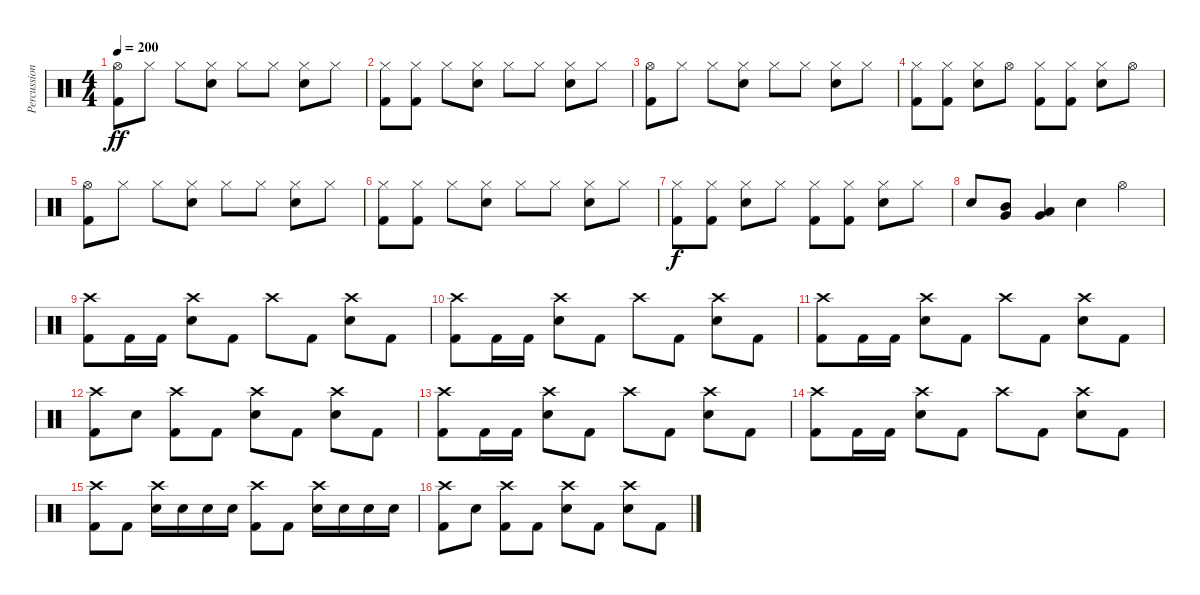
\track ("Percussion" "Percussion") {instrument percussion}
\staff {score}
\articulation defaults
\ts (4 4)
\tempo 200
\clef neutral
\ks c
("Hi-Hat (open)" "Kick (hit) 2").8{dy ff} "Hi-Hat (closed)".8 "Hi-Hat (closed)".8 ("Hi-Hat (closed)" "Snare (hit) 2").8 "Hi-Hat (closed)".8 "Hi-Hat (closed)".8 ("Hi-Hat (closed)" "Snare (hit) 2").8 "Hi-Hat (closed)".8 |
("Hi-Hat (closed)" "Kick (hit) 2").8 ("Hi-Hat (closed)" "Kick (hit) 2").8 "Hi-Hat (closed)".8 ("Hi-Hat (closed)" "Snare (hit) 2").8 "Hi-Hat (closed)".8 "Hi-Hat (closed)".8 ("Hi-Hat (closed)" "Snare (hit) 2").8 "Hi-Hat (closed)".8 |
("Hi-Hat (open)" "Kick (hit) 2").8 "Hi-Hat (closed)".8 "Hi-Hat (closed)".8 ("Hi-Hat (closed)" "Snare (hit) 2").8 "Hi-Hat (closed)".8 "Hi-Hat (closed)".8 ("Hi-Hat (closed)" "Snare (hit) 2").8 "Hi-Hat (closed)".8 |
("Hi-Hat (closed)" "Kick (hit) 2").8 ("Hi-Hat (closed)" "Kick (hit) 2").8 ("Hi-Hat (closed)" "Snare (hit) 2").8 "Hi-Hat (open)".8 ("Hi-Hat (closed)" "Kick (hit) 2").8 ("Hi-Hat (closed)" "Kick (hit) 2").8 ("Hi-Hat (closed)" "Snare (hit) 2").8 "Hi-Hat (open)".8 |
("Hi-Hat (open)" "Kick (hit) 2").8 "Hi-Hat (closed)".8 "Hi-Hat (closed)".8 ("Hi-Hat (closed)" "Snare (hit) 2").8 "Hi-Hat (closed)".8 "Hi-Hat (closed)".8 ("Hi-Hat (closed)" "Snare (hit) 2").8 "Hi-Hat (closed)".8 |
("Hi-Hat (closed)" "Kick (hit) 2").8 ("Hi-Hat (closed)" "Kick (hit) 2").8 "Hi-Hat (closed)".8 ("Hi-Hat (closed)" "Snare (hit) 2").8 "Hi-Hat (closed)".8 "Hi-Hat (closed)".8 ("Hi-Hat (closed)" "Snare (hit) 2").8 "Hi-Hat (closed)".8 |
("Hi-Hat (closed)" "Kick (hit) 2").8{dy f} ("Hi-Hat (closed)" "Kick (hit) 2").8 ("Hi-Hat (closed)" "Snare (hit) 2").8 "Hi-Hat (closed)".8 ("Hi-Hat (closed)" "Kick (hit) 2").8 ("Hi-Hat (closed)" "Kick (hit) 2").8 ("Hi-Hat (closed)" "Snare (hit) 2").8 "Hi-Hat (closed)".8 |
"Snare (hit) 2".8 ("Mid Tom (hit)" "Very Low Tom (hit)").8 ("Low Tom (hit)" "Very Low Tom (hit)").4 "Snare (hit) 2".4 "Hi-Hat (open)".4 |
("Crash high (hit)" "Kick (hit) 2").8 "Kick (hit) 2".16 "Kick (hit) 2".16 ("Crash high (hit)" "Snare (hit) 2").8 "Kick (hit) 2".8 "Crash high (hit)".8 "Kick (hit) 2".8 ("Crash high (hit)" "Snare (hit) 2").8 "Kick (hit) 2".8 |
("Crash high (hit)" "Kick (hit) 2").8 "Kick (hit) 2".16 "Kick (hit) 2".16 ("Crash high (hit)" "Snare (hit) 2").8 "Kick (hit) 2".8 "Crash high (hit)".8 "Kick (hit) 2".8 ("Crash high (hit)" "Snare (hit) 2").8 "Kick (hit) 2".8 |
("Crash high (hit)" "Kick (hit) 2").8 "Kick (hit) 2".16 "Kick (hit) 2".16 ("Crash high (hit)" "Snare (hit) 2").8 "Kick (hit) 2".8 "Crash high (hit)".8 "Kick (hit) 2".8 ("Crash high (hit)" "Snare (hit) 2").8 "Kick (hit) 2".8 |
("Crash high (hit)" "Kick (hit) 2").8 "Snare (hit) 2".8 ("Crash high (hit)" "Kick (hit) 2").8 "Kick (hit) 2".8 ("Crash high (hit)" "Snare (hit) 2").8 "Kick (hit) 2".8 ("Crash high (hit)" "Snare (hit) 2").8 "Kick (hit) 2".8 |
("Crash high (hit)" "Kick (hit) 2").8 "Kick (hit) 2".16 "Kick (hit) 2".16 ("Crash high (hit)" "Snare (hit) 2").8 "Kick (hit) 2".8 "Crash high (hit)".8 "Kick (hit) 2".8 ("Crash high (hit)" "Snare (hit) 2").8 "Kick (hit) 2".8 |
("Crash high (hit)" "Kick (hit) 2").8 "Kick (hit) 2".16 "Kick (hit) 2".16 ("Crash high (hit)" "Snare (hit) 2").8 "Kick (hit) 2".8 "Crash high (hit)".8 "Kick (hit) 2".8 ("Crash high (hit)" "Snare (hit) 2").8 "Kick (hit) 2".8 |
("Crash high (hit)" "Kick (hit) 2").8 "Kick (hit) 2".8 ("Crash high (hit)" "Snare (hit) 2").16 "Snare (hit) 2".16 "Snare (hit) 2".16 "Snare (hit) 2".16 ("Crash high (hit)" "Kick (hit) 2").8 "Kick (hit) 2".8 ("Crash high (hit)" "Snare (hit) 2").16 "Snare (hit) 2".16 "Snare (hit) 2".16 "Snare (hit) 2".16 |
("Crash high (hit)" "Kick (hit) 2").8 "Snare (hit) 2".8 ("Crash high (hit)" "Kick (hit) 2").8 "Kick (hit) 2".8 ("Crash high (hit)" "Snare (hit) 2").8 "Kick (hit) 2".8 ("Crash high (hit)" "Snare (hit) 2").8 "Kick (hit) 2".8
